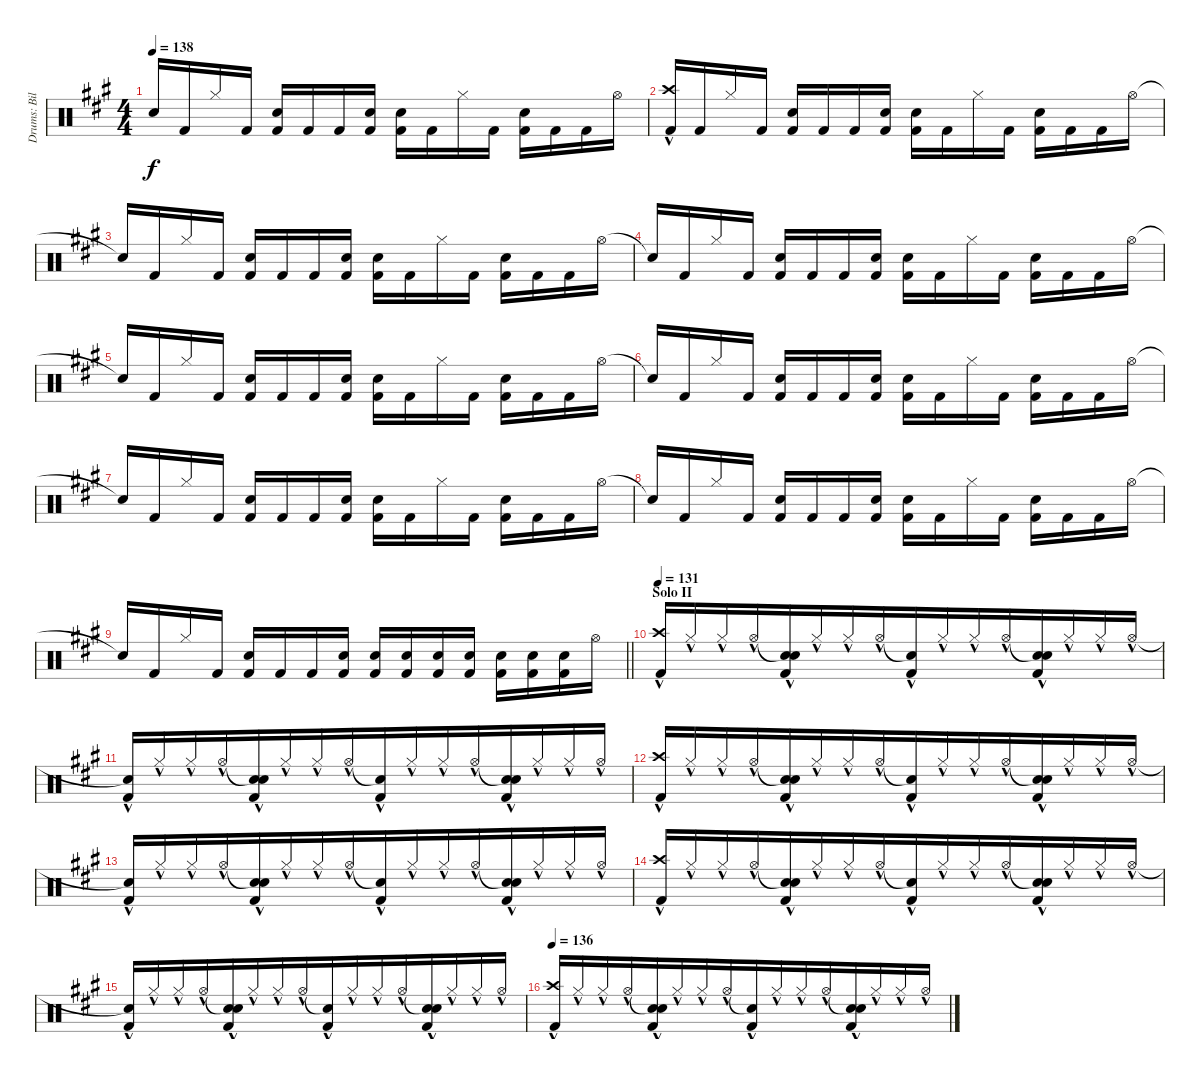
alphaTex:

\track ("Drums: Bill" "Drums: Bil") {instrument percussion}
\staff {score}
\articulation defaults
\ts (4 4)
\tempo 138
\clef neutral
\ks a "Snare (hit)"{t}.16{dy f beam Up} "Kick (hit) 2".16 "Hi-Hat (closed)".16 "Kick (hit) 2".16
("Electric Snare (hit)" "Kick (hit) 2").16 "Kick (hit) 2".16 "Kick (hit) 2".16 ("Electric Snare (hit)" "Kick (hit) 2").16 ("Electric Snare (hit)" "Kick (hit) 2").16 "Kick (hit) 2".16 "Hi-Hat (closed)".16 "Kick (hit) 2".16 ("Electric Snare (hit)" "Kick (hit) 2").16 "Kick (hit) 2".16 "Kick (hit) 2".16 "Hi-Hat (open)".16 |
("Crash high (hit)"{hac} "Kick (hit) 2"{hac}).16{beam Up} "Kick (hit) 2".16 "Hi-Hat (closed)".16 "Kick (hit) 2".16 ("Electric Snare (hit)" "Kick (hit) 2").16 "Kick (hit) 2".16 "Kick (hit) 2".16 ("Electric Snare (hit)" "Kick (hit) 2").16 ("Electric Snare (hit)" "Kick (hit) 2").16 "Kick (hit) 2".16 "Hi-Hat (closed)".16 "Kick (hit) 2".16 ("Electric Snare (hit)" "Kick (hit) 2").16 "Kick (hit) 2".16 "Kick (hit) 2".16 "Hi-Hat (open)".16 |
"Snare (hit)"{t}.16{beam Up} "Kick (hit) 2".16 "Hi-Hat (closed)".16 "Kick (hit) 2".16 ("Electric Snare (hit)" "Kick (hit) 2").16 "Kick (hit) 2".16 "Kick (hit) 2".16 ("Electric Snare (hit)" "Kick (hit) 2").16 ("Electric Snare (hit)" "Kick (hit) 2").16 "Kick (hit) 2".16 "Hi-Hat (closed)".16 "Kick (hit) 2".16 ("Electric Snare (hit)" "Kick (hit) 2").16 "Kick (hit) 2".16 "Kick (hit) 2".16 "Hi-Hat (open)".16 |
"Snare (hit)"{t}.16{beam Up} "Kick (hit) 2".16 "Hi-Hat (closed)".16 "Kick (hit) 2".16 ("Electric Snare (hit)" "Kick (hit) 2").16 "Kick (hit) 2".16 "Kick (hit) 2".16 ("Electric Snare (hit)" "Kick (hit) 2").16 ("Electric Snare (hit)" "Kick (hit) 2").16 "Kick (hit) 2".16 "Hi-Hat (closed)".16 "Kick (hit) 2".16 ("Electric Snare (hit)" "Kick (hit) 2").16 "Kick (hit) 2".16 "Kick (hit) 2".16 "Hi-Hat (open)".16 |
"Snare (hit)"{t}.16{beam Up} "Kick (hit) 2".16 "Hi-Hat (closed)".16 "Kick (hit) 2".16 ("Electric Snare (hit)" "Kick (hit) 2").16 "Kick (hit) 2".16 "Kick (hit) 2".16 ("Electric Snare (hit)" "Kick (hit) 2").16 ("Electric Snare (hit)" "Kick (hit) 2").16 "Kick (hit) 2".16 "Hi-Hat (closed)".16 "Kick (hit) 2".16 ("Electric Snare (hit)" "Kick (hit) 2").16 "Kick (hit) 2".16 "Kick (hit) 2".16 "Hi-Hat (open)".16 |
"Snare (hit)"{t}.16{beam Up} "Kick (hit) 2".16 "Hi-Hat (closed)".16 "Kick (hit) 2".16 ("Electric Snare (hit)" "Kick (hit) 2").16 "Kick (hit) 2".16 "Kick (hit) 2".16 ("Electric Snare (hit)" "Kick (hit) 2").16 ("Electric Snare (hit)" "Kick (hit) 2").16 "Kick (hit) 2".16 "Hi-Hat (closed)".16 "Kick (hit) 2".16 ("Electric Snare (hit)" "Kick (hit) 2").16 "Kick (hit) 2".16 "Kick (hit) 2".16 "Hi-Hat (open)".16 |
"Snare (hit)"{t}.16{beam Up} "Kick (hit) 2".16 "Hi-Hat (closed)".16 "Kick (hit) 2".16 ("Electric Snare (hit)" "Kick (hit) 2").16 "Kick (hit) 2".16 "Kick (hit) 2".16 ("Electric Snare (hit)" "Kick (hit) 2").16 ("Electric Snare (hit)" "Kick (hit) 2").16 "Kick (hit) 2".16 "Hi-Hat (closed)".16 "Kick (hit) 2".16 ("Electric Snare (hit)" "Kick (hit) 2").16 "Kick (hit) 2".16 "Kick (hit) 2".16 "Hi-Hat (open)".16 |
"Snare (hit)"{t}.16{beam Up} "Kick (hit) 2".16 "Hi-Hat (closed)".16 "Kick (hit) 2".16 ("Electric Snare (hit)" "Kick (hit) 2").16 "Kick (hit) 2".16 "Kick (hit) 2".16 ("Electric Snare (hit)" "Kick (hit) 2").16 ("Electric Snare (hit)" "Kick (hit) 2").16 "Kick (hit) 2".16 "Hi-Hat (closed)".16 "Kick (hit) 2".16 ("Electric Snare (hit)" "Kick (hit) 2").16 "Kick (hit) 2".16 "Kick (hit) 2".16 "Hi-Hat (open)".16 |
\barLineRight lightlight "Snare (hit)"{t}.16{beam Up} "Kick (hit) 2".16 "Hi-Hat (closed)".16 "Kick (hit) 2".16
("Electric Snare (hit)" "Kick (hit) 2").16 "Kick (hit) 2".16 "Kick (hit) 2".16 ("Electric Snare (hit)" "Kick (hit) 2").16 ("Electric Snare (hit)" "Kick (hit) 2").16 ("Electric Snare (hit)" "Kick (hit) 2").16 ("Electric Snare (hit)" "Kick (hit) 2").16 ("Electric Snare (hit)" "Kick (hit) 2").16 ("Electric Snare (hit)" "Kick (hit) 2").16 ("Electric Snare (hit)" "Kick (hit) 2").16 ("Electric Snare (hit)" "Kick (hit) 2").16 "Hi-Hat (open)".16 |
\section ("" "Solo II")
\tempo 131
("Crash high (hit)"{hac} "Kick (hit) 2"{hac}).16{beam Up beam merge} "Hi-Hat (closed)"{hac}.16{beam Up beam merge} "Hi-Hat (closed)"{hac}.16{beam Up beam merge} "Hi-Hat (open)"{hac}.16{beam Up beam merge} ("Snare (hit)"{t} "Electric Snare (hit)"{hac} "Kick (hit) 2"{hac}).16{beam Up beam merge} "Hi-Hat (closed)"{hac}.16{beam Up beam merge} "Hi-Hat (closed)"{hac}.16{beam Up beam merge} "Hi-Hat (open)"{hac}.16{beam Up beam merge} ("Snare (hit)"{t} "Kick (hit) 2"{hac}).16{beam Up beam merge} "Hi-Hat (closed)"{hac}.16{beam Up beam merge} "Hi-Hat (closed)"{hac}.16{beam Up beam merge} "Hi-Hat (open)"{hac}.16{beam Up beam merge} ("Snare (hit)"{t} "Electric Snare (hit)"{hac} "Kick (hit) 2"{hac}).16{beam Up beam merge} "Hi-Hat (closed)"{hac}.16{beam Up beam merge} "Hi-Hat (closed)"{hac}.16{beam Up beam merge} "Hi-Hat (open)"{hac}.16{beam Up} |
("Snare (hit)"{t} "Kick (hit) 2"{hac}).16{beam Up beam merge} "Hi-Hat (closed)"{hac}.16{beam Up beam merge} "Hi-Hat (closed)"{hac}.16{beam Up beam merge} "Hi-Hat (open)"{hac}.16{beam Up beam merge} ("Snare (hit)"{t} "Electric Snare (hit)"{hac} "Kick (hit) 2"{hac}).16{beam Up beam merge} "Hi-Hat (closed)"{hac}.16{beam Up beam merge} "Hi-Hat (closed)"{hac}.16{beam Up beam merge} "Hi-Hat (open)"{hac}.16{beam Up beam merge} ("Snare (hit)"{t} "Kick (hit) 2"{hac}).16{beam Up beam merge} "Hi-Hat (closed)"{hac}.16{beam Up beam merge} "Hi-Hat (closed)"{hac}.16{beam Up beam merge} "Hi-Hat (open)"{hac}.16{beam Up beam merge} ("Snare (hit)"{t} "Electric Snare (hit)" "Kick (hit) 2"{hac}).16{beam Up beam merge} "Hi-Hat (closed)"{hac}.16{beam Up beam merge} "Hi-Hat (closed)"{hac}.16{beam Up beam merge} "Hi-Hat (open)"{hac}.16{beam Up} |
("Crash high (hit)"{hac} "Kick (hit) 2"{hac}).16{beam Up beam merge} "Hi-Hat (closed)"{hac}.16{beam Up beam merge} "Hi-Hat (closed)"{hac}.16{beam Up beam merge} "Hi-Hat (open)"{hac}.16{beam Up beam merge} ("Snare (hit)"{t} "Electric Snare (hit)"{hac} "Kick (hit) 2"{hac}).16{beam Up beam merge} "Hi-Hat (closed)"{hac}.16{beam Up beam merge} "Hi-Hat (closed)"{hac}.16{beam Up beam merge} "Hi-Hat (open)"{hac}.16{beam Up beam merge} ("Snare (hit)"{t} "Kick (hit) 2"{hac}).16{beam Up beam merge} "Hi-Hat (closed)"{hac}.16{beam Up beam merge} "Hi-Hat (closed)"{hac}.16{beam Up beam merge} "Hi-Hat (open)"{hac}.16{beam Up beam merge} ("Snare (hit)"{t} "Electric Snare (hit)"{hac} "Kick (hit) 2"{hac}).16{beam Up beam merge} "Hi-Hat (closed)"{hac}.16{beam Up beam merge} "Hi-Hat (closed)"{hac}.16{beam Up beam merge} "Hi-Hat (open)"{hac}.16{beam Up} |
("Snare (hit)"{t} "Kick (hit) 2"{hac}).16{beam Up beam merge} "Hi-Hat (closed)"{hac}.16{beam Up beam merge} "Hi-Hat (closed)"{hac}.16{beam Up beam merge} "Hi-Hat (open)"{hac}.16{beam Up beam merge} ("Snare (hit)"{t} "Electric Snare (hit)"{hac} "Kick (hit) 2"{hac}).16{beam Up beam merge} "Hi-Hat (closed)"{hac}.16{beam Up beam merge} "Hi-Hat (closed)"{hac}.16{beam Up beam merge} "Hi-Hat (open)"{hac}.16{beam Up beam merge} ("Snare (hit)"{t} "Kick (hit) 2"{hac}).16{beam Up beam merge} "Hi-Hat (closed)"{hac}.16{beam Up beam merge} "Hi-Hat (closed)"{hac}.16{beam Up beam merge} "Hi-Hat (open)"{hac}.16{beam Up beam merge} ("Snare (hit)"{t} "Electric Snare (hit)" "Kick (hit) 2"{hac}).16{beam Up beam merge} "Hi-Hat (closed)"{hac}.16{beam Up beam merge} "Hi-Hat (closed)"{hac}.16{beam Up beam merge} "Hi-Hat (open)"{hac}.16{beam Up} |
("Crash high (hit)"{hac} "Kick (hit) 2"{hac}).16{beam Up beam merge} "Hi-Hat (closed)"{hac}.16{beam Up beam merge} "Hi-Hat (closed)"{hac}.16{beam Up beam merge} "Hi-Hat (open)"{hac}.16{beam Up beam merge} ("Snare (hit)"{t} "Electric Snare (hit)"{hac} "Kick (hit) 2"{hac}).16{beam Up beam merge} "Hi-Hat (closed)"{hac}.16{beam Up beam merge} "Hi-Hat (closed)"{hac}.16{beam Up beam merge} "Hi-Hat (open)"{hac}.16{beam Up beam merge} ("Snare (hit)"{t} "Kick (hit) 2"{hac}).16{beam Up beam merge} "Hi-Hat (closed)"{hac}.16{beam Up beam merge} "Hi-Hat (closed)"{hac}.16{beam Up beam merge} "Hi-Hat (open)"{hac}.16{beam Up beam merge} ("Snare (hit)"{t} "Electric Snare (hit)"{hac} "Kick (hit) 2"{hac}).16{beam Up beam merge} "Hi-Hat (closed)"{hac}.16{beam Up beam merge} "Hi-Hat (closed)"{hac}.16{beam Up beam merge} "Hi-Hat (open)"{hac}.16{beam Up} |
("Snare (hit)"{t} "Kick (hit) 2"{hac}).16{beam Up beam merge} "Hi-Hat (closed)"{hac}.16{beam Up beam merge} "Hi-Hat (closed)"{hac}.16{beam Up beam merge} "Hi-Hat (open)"{hac}.16{beam Up beam merge} ("Snare (hit)"{t} "Electric Snare (hit)"{hac} "Kick (hit) 2"{hac}).16{beam Up beam merge} "Hi-Hat (closed)"{hac}.16{beam Up beam merge} "Hi-Hat (closed)"{hac}.16{beam Up beam merge} "Hi-Hat (open)"{hac}.16{beam Up beam merge} ("Snare (hit)"{t} "Kick (hit) 2"{hac}).16{beam Up beam merge} "Hi-Hat (closed)"{hac}.16{beam Up beam merge} "Hi-Hat (closed)"{hac}.16{beam Up beam merge} "Hi-Hat (open)"{hac}.16{beam Up beam merge} ("Snare (hit)"{t} "Electric Snare (hit)" "Kick (hit) 2"{hac}).16{beam Up beam merge} "Hi-Hat (closed)"{hac}.16{beam Up beam merge} "Hi-Hat (closed)"{hac}.16{beam Up beam merge} "Hi-Hat (open)"{hac}.16{beam Up} |
\tempo 136
("Crash high (hit)"{hac} "Kick (hit) 2"{hac}).16{beam Up beam merge} "Hi-Hat (closed)"{hac}.16{beam Up beam merge} "Hi-Hat (closed)"{hac}.16{beam Up beam merge} "Hi-Hat (open)"{hac}.16{beam Up beam merge} ("Snare (hit)"{t} "Electric Snare (hit)"{hac} "Kick (hit) 2"{hac}).16{beam Up beam merge} "Hi-Hat (closed)"{hac}.16{beam Up beam merge} "Hi-Hat (closed)"{hac}.16{beam Up beam merge} "Hi-Hat (open)"{hac}.16{beam Up beam merge} ("Snare (hit)"{t} "Kick (hit) 2"{hac}).16{beam Up beam merge} "Hi-Hat (closed)"{hac}.16{beam Up beam merge} "Hi-Hat (closed)"{hac}.16{beam Up beam merge} "Hi-Hat (open)"{hac}.16{beam Up beam merge} ("Snare (hit)"{t} "Electric Snare (hit)"{hac} "Kick (hit) 2"{hac}).16{beam Up beam merge} "Hi-Hat (closed)"{hac}.16{beam Up beam merge} "Hi-Hat (closed)"{hac}.16{beam Up beam merge} "Hi-Hat (open)"{hac}.16{beam Up}
